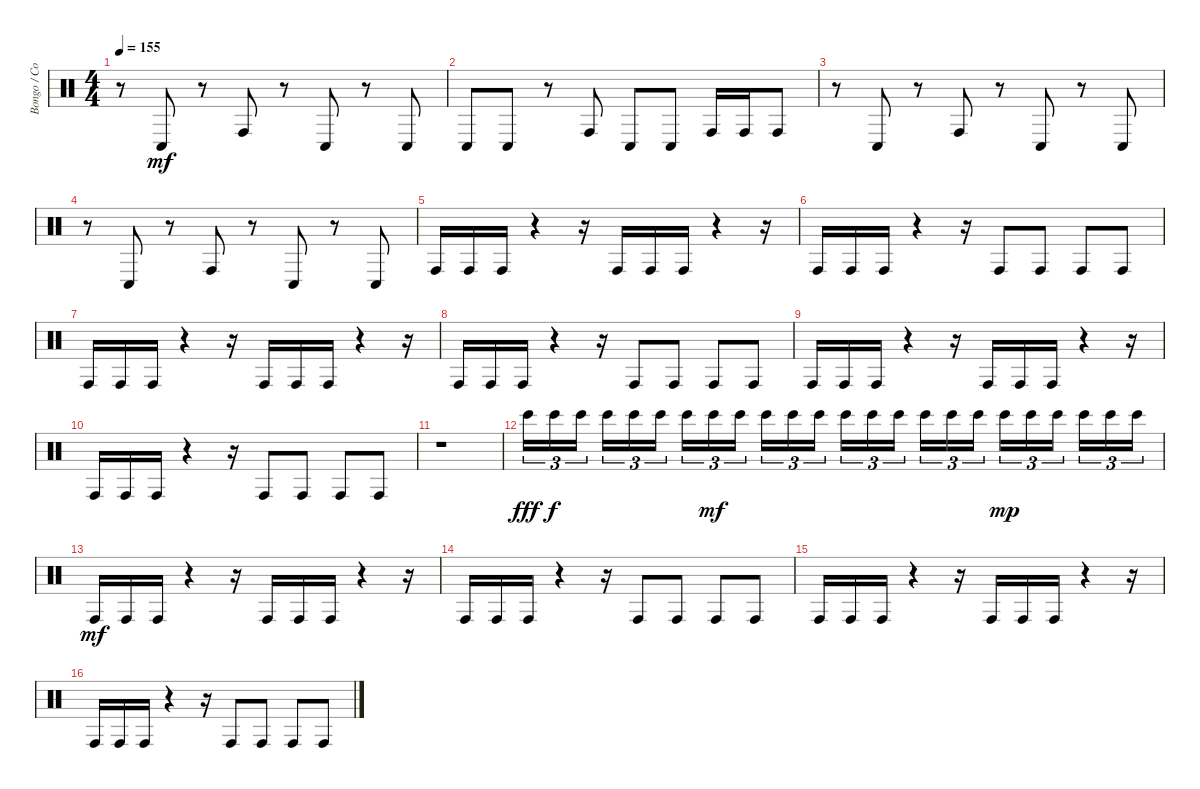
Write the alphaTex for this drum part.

\track ("Bongo / Conga" "Bongo / Co") {instrument percussion}
\staff {score}
\articulation defaults
\ts (4 4)
\tempo 155
\clef neutral
\ks c
r.8{dy mf} "Conga low (hit)".8 r.8 "Conga high (hit)".8 r.8 "Conga low (hit)".8 r.8 "Conga low (hit)".8 |
"Conga low (hit)".8 "Conga low (hit)".8 r.8 "Conga high (hit)".8 "Conga low (hit)".8 "Conga low (hit)".8 "Conga high (hit)".16 "Conga high (hit)".16 "Conga high (hit)".8 |
r.8 "Conga low (hit)".8 r.8 "Conga high (hit)".8 r.8 "Conga low (hit)".8 r.8 "Conga low (hit)".8 |
r.8 "Conga low (hit)".8 r.8 "Conga high (hit)".8 r.8 "Conga low (hit)".8 r.8 "Conga low (hit)".8 |
"Conga high (hit)".16 "Conga high (hit)".16 "Conga high (hit)".16 r.4 r.16 "Conga high (hit)".16 "Conga high (hit)".16 "Conga high (hit)".16 r.4 r.16 |
"Conga high (hit)".16 "Conga high (hit)".16 "Conga high (hit)".16 r.4 r.16 "Conga high (hit)".8 "Conga high (hit)".8 "Conga high (hit)".8 "Conga high (hit)".8 |
"Conga high (hit)".16 "Conga high (hit)".16 "Conga high (hit)".16 r.4 r.16 "Conga high (hit)".16 "Conga high (hit)".16 "Conga high (hit)".16 r.4 r.16 |
"Conga high (hit)".16 "Conga high (hit)".16 "Conga high (hit)".16 r.4 r.16 "Conga high (hit)".8 "Conga high (hit)".8 "Conga high (hit)".8 "Conga high (hit)".8 |
"Conga high (hit)".16 "Conga high (hit)".16 "Conga high (hit)".16 r.4 r.16 "Conga high (hit)".16 "Conga high (hit)".16 "Conga high (hit)".16 r.4 r.16 |
"Conga high (hit)".16 "Conga high (hit)".16 "Conga high (hit)".16 r.4 r.16 "Conga high (hit)".8 "Conga high (hit)".8 "Conga high (hit)".8 "Conga high (hit)".8 |
r.1 |
"Bongo High (hit)".16{tu (3 2) dy fff} "Bongo High (hit)".16{tu (3 2) dy f} "Bongo High (hit)".16{tu (3 2) beam splitsecondary} "Bongo High (hit)".16{tu (3 2)} "Bongo High (hit)".16{tu (3 2)} "Bongo High (hit)".16{tu (3 2)} "Bongo High (hit)".16{tu (3 2)} "Bongo High (hit)".16{tu (3 2) dy mf} "Bongo High (hit)".16{tu (3 2) beam splitsecondary} "Bongo High (hit)".16{tu (3 2)} "Bongo High (hit)".16{tu (3 2)} "Bongo High (hit)".16{tu (3 2)} "Bongo High (hit)".16{tu (3 2)} "Bongo High (hit)".16{tu (3 2)} "Bongo High (hit)".16{tu (3 2) beam splitsecondary} "Bongo High (hit)".16{tu (3 2)} "Bongo High (hit)".16{tu (3 2)} "Bongo High (hit)".16{tu (3 2)} "Bongo High (hit)".16{tu (3 2) dy mp} "Bongo High (hit)".16{tu (3 2)} "Bongo High (hit)".16{tu (3 2) beam splitsecondary} "Bongo High (hit)".16{tu (3 2)} "Bongo High (hit)".16{tu (3 2)} "Bongo High (hit)".16{tu (3 2)} |
"Conga high (hit)".16{dy mf} "Conga high (hit)".16 "Conga high (hit)".16 r.4 r.16 "Conga high (hit)".16 "Conga high (hit)".16 "Conga high (hit)".16 r.4 r.16 |
"Conga high (hit)".16 "Conga high (hit)".16 "Conga high (hit)".16 r.4 r.16 "Conga high (hit)".8 "Conga high (hit)".8 "Conga high (hit)".8 "Conga high (hit)".8 |
"Conga high (hit)".16 "Conga high (hit)".16 "Conga high (hit)".16 r.4 r.16 "Conga high (hit)".16 "Conga high (hit)".16 "Conga high (hit)".16 r.4 r.16 |
"Conga high (hit)".16 "Conga high (hit)".16 "Conga high (hit)".16 r.4 r.16 "Conga high (hit)".8 "Conga high (hit)".8 "Conga high (hit)".8 "Conga high (hit)".8
